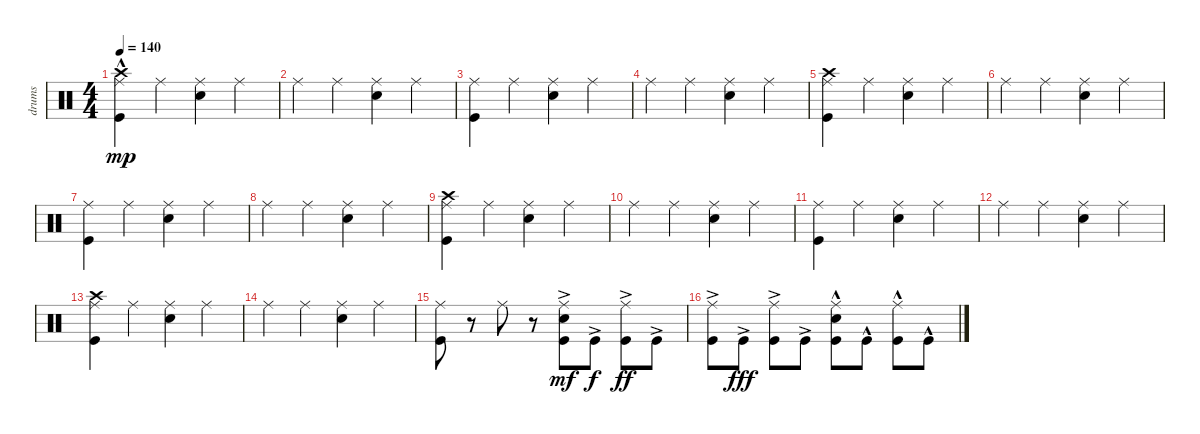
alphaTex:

\track ("drums" "drums") {instrument percussion}
\staff {score}
\articulation defaults
\ts (4 4)
\tempo 140
\clef neutral
\ks c
("Crash high (hit)"{hac} "Ride (middle)" "Kick (hit)").4{dy mp} "Ride (middle)".4 ("Ride (middle)" "Snare (hit) 2").4 "Ride (middle)".4 |
"Ride (middle)".4 "Ride (middle)".4 ("Ride (middle)" "Snare (hit) 2").4 "Ride (middle)".4 |
("Ride (middle)" "Kick (hit)").4 "Ride (middle)".4 ("Ride (middle)" "Snare (hit) 2").4 "Ride (middle)".4 |
"Ride (middle)".4 "Ride (middle)".4 ("Ride (middle)" "Snare (hit) 2").4 "Ride (middle)".4 |
("Crash high (hit)" "Ride (middle)" "Kick (hit)").4 "Ride (middle)".4 ("Ride (middle)" "Snare (hit) 2").4 "Ride (middle)".4 |
"Ride (middle)".4 "Ride (middle)".4 ("Ride (middle)" "Snare (hit) 2").4 "Ride (middle)".4 |
("Ride (middle)" "Kick (hit)").4 "Ride (middle)".4 ("Ride (middle)" "Snare (hit) 2").4 "Ride (middle)".4 |
"Ride (middle)".4 "Ride (middle)".4 ("Ride (middle)" "Snare (hit) 2").4 "Ride (middle)".4 |
("Crash high (hit)" "Ride (middle)" "Kick (hit)").4 "Ride (middle)".4 ("Ride (middle)" "Snare (hit) 2").4 "Ride (middle)".4 |
"Ride (middle)".4 "Ride (middle)".4 ("Ride (middle)" "Snare (hit) 2").4 "Ride (middle)".4 |
("Ride (middle)" "Kick (hit)").4 "Ride (middle)".4 ("Ride (middle)" "Snare (hit) 2").4 "Ride (middle)".4 |
"Ride (middle)".4 "Ride (middle)".4 ("Ride (middle)" "Snare (hit) 2").4 "Ride (middle)".4 |
("Crash high (hit)" "Ride (middle)" "Kick (hit)").4 "Ride (middle)".4 ("Ride (middle)" "Snare (hit) 2").4 "Ride (middle)".4 |
"Ride (middle)".4 "Ride (middle)".4 ("Ride (middle)" "Snare (hit) 2").4 "Ride (middle)".4 |
("Ride (middle)" "Kick (hit)").8 r.8 "Ride (middle)".8 r.8 ("Ride (middle)" "Snare (hit) 2" "Kick (hit)"{ac}).8{dy mf} "Kick (hit)"{ac}.8{dy f} ("Ride (middle)" "Kick (hit)"{ac}).8{dy ff} "Kick (hit)"{ac}.8 |
("Ride (middle)" "Kick (hit)"{ac}).8 "Kick (hit)"{ac}.8{dy fff} ("Ride (middle)" "Kick (hit)"{ac}).8 "Kick (hit)"{ac}.8 ("Ride (middle)" "Snare (hit) 2" "Kick (hit)"{hac}).8 "Kick (hit)"{hac}.8 ("Ride (middle)" "Kick (hit)"{hac}).8 "Kick (hit)"{hac}.8
